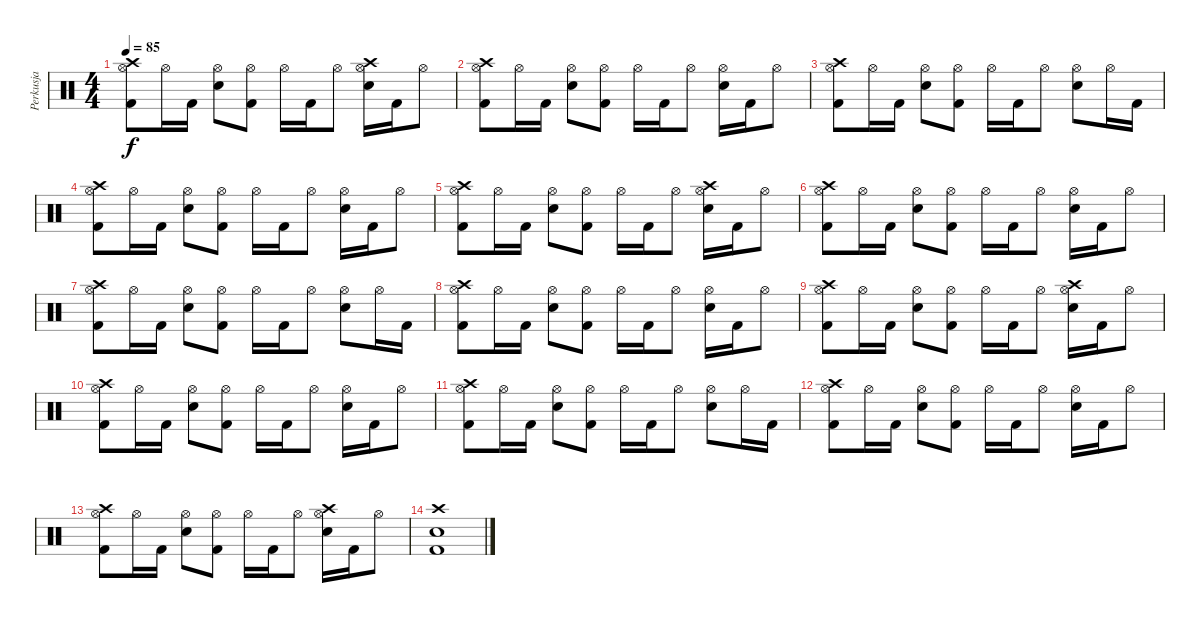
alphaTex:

\track ("Perkusja" "Perkusja") {instrument percussion}
\staff {score}
\articulation defaults
\ts (4 4)
\tempo 85
\clef neutral
\ks c
("Hi-Hat (open)" "Kick (hit) 2" "Crash high (hit)").8{dy f} "Hi-Hat (open)".16 "Kick (hit) 2".16 ("Hi-Hat (open)" "Snare (hit) 2").8 ("Hi-Hat (open)" "Kick (hit) 2").8 "Hi-Hat (open)".16 "Kick (hit) 2".16 "Hi-Hat (open)".8 ("Hi-Hat (open)" "Snare (hit) 2" "Crash high (hit)").16 "Kick (hit) 2".16 "Hi-Hat (open)".8 |
("Hi-Hat (open)" "Kick (hit) 2" "Crash high (hit)").8 "Hi-Hat (open)".16 "Kick (hit) 2".16 ("Hi-Hat (open)" "Snare (hit) 2").8 ("Hi-Hat (open)" "Kick (hit) 2").8 "Hi-Hat (open)".16 "Kick (hit) 2".16 "Hi-Hat (open)".8 ("Hi-Hat (open)" "Snare (hit) 2").16 "Kick (hit) 2".16 "Hi-Hat (open)".8 |
("Hi-Hat (open)" "Kick (hit) 2" "Crash high (hit)").8 "Hi-Hat (open)".16 "Kick (hit) 2".16 ("Hi-Hat (open)" "Snare (hit) 2").8 ("Hi-Hat (open)" "Kick (hit) 2").8 "Hi-Hat (open)".16 "Kick (hit) 2".16 "Hi-Hat (open)".8 ("Hi-Hat (open)" "Snare (hit) 2").8 "Hi-Hat (open)".16 "Kick (hit) 2".16 |
("Hi-Hat (open)" "Kick (hit) 2" "Crash high (hit)").8 "Hi-Hat (open)".16 "Kick (hit) 2".16 ("Hi-Hat (open)" "Snare (hit) 2").8 ("Hi-Hat (open)" "Kick (hit) 2").8 "Hi-Hat (open)".16 "Kick (hit) 2".16 "Hi-Hat (open)".8 ("Hi-Hat (open)" "Snare (hit) 2").16 "Kick (hit) 2".16 "Hi-Hat (open)".8 |
("Hi-Hat (open)" "Kick (hit) 2" "Crash high (hit)").8 "Hi-Hat (open)".16 "Kick (hit) 2".16 ("Hi-Hat (open)" "Snare (hit) 2").8 ("Hi-Hat (open)" "Kick (hit) 2").8 "Hi-Hat (open)".16 "Kick (hit) 2".16 "Hi-Hat (open)".8 ("Hi-Hat (open)" "Snare (hit) 2" "Crash high (hit)").16 "Kick (hit) 2".16 "Hi-Hat (open)".8 |
("Hi-Hat (open)" "Kick (hit) 2" "Crash high (hit)").8 "Hi-Hat (open)".16 "Kick (hit) 2".16 ("Hi-Hat (open)" "Snare (hit) 2").8 ("Hi-Hat (open)" "Kick (hit) 2").8 "Hi-Hat (open)".16 "Kick (hit) 2".16 "Hi-Hat (open)".8 ("Hi-Hat (open)" "Snare (hit) 2").16 "Kick (hit) 2".16 "Hi-Hat (open)".8 |
("Hi-Hat (open)" "Kick (hit) 2" "Crash high (hit)").8 "Hi-Hat (open)".16 "Kick (hit) 2".16 ("Hi-Hat (open)" "Snare (hit) 2").8 ("Hi-Hat (open)" "Kick (hit) 2").8 "Hi-Hat (open)".16 "Kick (hit) 2".16 "Hi-Hat (open)".8 ("Hi-Hat (open)" "Snare (hit) 2").8 "Hi-Hat (open)".16 "Kick (hit) 2".16 |
("Hi-Hat (open)" "Kick (hit) 2" "Crash high (hit)").8 "Hi-Hat (open)".16 "Kick (hit) 2".16 ("Hi-Hat (open)" "Snare (hit) 2").8 ("Hi-Hat (open)" "Kick (hit) 2").8 "Hi-Hat (open)".16 "Kick (hit) 2".16 "Hi-Hat (open)".8 ("Hi-Hat (open)" "Snare (hit) 2").16 "Kick (hit) 2".16 "Hi-Hat (open)".8 |
("Hi-Hat (open)" "Kick (hit) 2" "Crash high (hit)").8 "Hi-Hat (open)".16 "Kick (hit) 2".16 ("Hi-Hat (open)" "Snare (hit) 2").8 ("Hi-Hat (open)" "Kick (hit) 2").8 "Hi-Hat (open)".16 "Kick (hit) 2".16 "Hi-Hat (open)".8 ("Hi-Hat (open)" "Snare (hit) 2" "Crash high (hit)").16 "Kick (hit) 2".16 "Hi-Hat (open)".8 |
("Hi-Hat (open)" "Kick (hit) 2" "Crash high (hit)").8 "Hi-Hat (open)".16 "Kick (hit) 2".16 ("Hi-Hat (open)" "Snare (hit) 2").8 ("Hi-Hat (open)" "Kick (hit) 2").8 "Hi-Hat (open)".16 "Kick (hit) 2".16 "Hi-Hat (open)".8 ("Hi-Hat (open)" "Snare (hit) 2").16 "Kick (hit) 2".16 "Hi-Hat (open)".8 |
("Hi-Hat (open)" "Kick (hit) 2" "Crash high (hit)").8 "Hi-Hat (open)".16 "Kick (hit) 2".16 ("Hi-Hat (open)" "Snare (hit) 2").8 ("Hi-Hat (open)" "Kick (hit) 2").8 "Hi-Hat (open)".16 "Kick (hit) 2".16 "Hi-Hat (open)".8 ("Hi-Hat (open)" "Snare (hit) 2").8 "Hi-Hat (open)".16 "Kick (hit) 2".16 |
("Hi-Hat (open)" "Kick (hit) 2" "Crash high (hit)").8 "Hi-Hat (open)".16 "Kick (hit) 2".16 ("Hi-Hat (open)" "Snare (hit) 2").8 ("Hi-Hat (open)" "Kick (hit) 2").8 "Hi-Hat (open)".16 "Kick (hit) 2".16 "Hi-Hat (open)".8 ("Hi-Hat (open)" "Snare (hit) 2").16 "Kick (hit) 2".16 "Hi-Hat (open)".8 |
("Hi-Hat (open)" "Kick (hit) 2" "Crash high (hit)").8 "Hi-Hat (open)".16 "Kick (hit) 2".16 ("Hi-Hat (open)" "Snare (hit) 2").8 ("Hi-Hat (open)" "Kick (hit) 2").8 "Hi-Hat (open)".16 "Kick (hit) 2".16 "Hi-Hat (open)".8 ("Hi-Hat (open)" "Snare (hit) 2" "Crash high (hit)").16 "Kick (hit) 2".16 "Hi-Hat (open)".8 |
("Snare (hit) 2" "Kick (hit) 2" "Crash high (hit)").1
